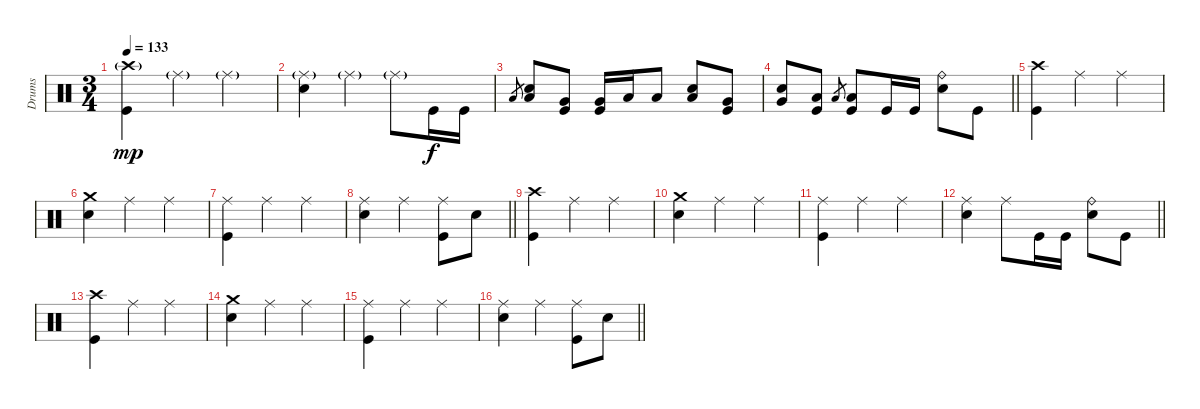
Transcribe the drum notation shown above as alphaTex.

\track ("Drums" "Drums") {instrument percussion}
\staff
\articulation defaults
\ts (3 4)
\tempo 133
\clef neutral
\ks c
("Crash high (hit)"{g} "Kick (hit)").4{dy mp} "Ride (middle)"{g}.4 "Ride (middle)"{g}.4 |
("Ride (middle)"{g} "Electric Snare (hit)").4 "Ride (middle)"{g}.4 "Ride (middle)"{g}.8 "Kick (hit)".16{dy f} "Kick (hit)".16 |
"Low Tom (hit)".8{gr} ("Low Tom (hit)" "Electric Snare (hit)").8 ("Very Low Tom (hit)" "Kick (hit)").8 ("Very Low Tom (hit)" "Kick (hit)").16 "Low Floor Tom (hit)".16 "Low Floor Tom (hit)".8 ("Low Tom (hit)" "Electric Snare (hit)").8 ("Very Low Tom (hit)" "Kick (hit)").8 |
\barLineRight lightlight
("Very Low Tom (hit)" "Electric Snare (hit)").8 ("Low Floor Tom (hit)" "Kick (hit)").8 "Low Floor Tom (hit)".8{gr} ("Low Floor Tom (hit)" "Kick (hit)").8 "Kick (hit)".16 "Kick (hit)".16 ("Ride (bell)" "Electric Snare (hit)").8 "Kick (hit)".8 |
\section ("" "")
("Crash high (hit)" "Kick (hit)").4 "Ride (middle)".4 "Ride (middle)".4 |
("Crash medium (hit)" "Electric Snare (hit)").4 "Ride (middle)".4 "Ride (middle)".4 |
("Ride (middle)" "Kick (hit)").4 "Ride (middle)".4 "Ride (middle)".4 |
\barLineRight lightlight
("Ride (middle)" "Electric Snare (hit)").4 "Ride (middle)".4 ("Ride (middle)" "Kick (hit)").8 "Electric Snare (hit)".8 |
("Crash high (hit)" "Kick (hit)").4 "Ride (middle)".4 "Ride (middle)".4 |
("Crash medium (hit)" "Electric Snare (hit)").4 "Ride (middle)".4 "Ride (middle)".4 |
("Ride (middle)" "Kick (hit)").4 "Ride (middle)".4 "Ride (middle)".4 |
\barLineRight lightlight
("Ride (middle)" "Electric Snare (hit)").4 "Ride (middle)".8 "Kick (hit)".16 "Kick (hit)".16 ("Ride (bell)" "Electric Snare (hit)").8 "Kick (hit)".8 |
("Crash high (hit)" "Kick (hit)").4 "Ride (middle)".4 "Ride (middle)".4 |
("Crash medium (hit)" "Electric Snare (hit)").4 "Ride (middle)".4 "Ride (middle)".4 |
("Ride (middle)" "Kick (hit)").4 "Ride (middle)".4 "Ride (middle)".4 |
\barLineRight lightlight
("Ride (middle)" "Electric Snare (hit)").4 "Ride (middle)".4 ("Ride (middle)" "Kick (hit)").8 "Electric Snare (hit)".8
